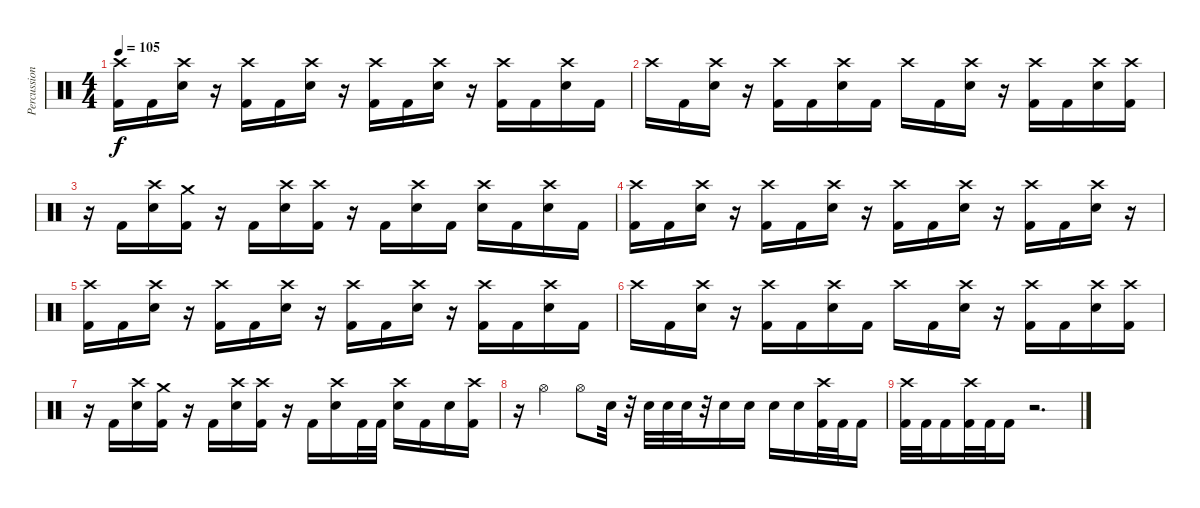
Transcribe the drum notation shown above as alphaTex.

\track ("Percussion" "Percussion") {instrument percussion}
\staff {score}
\articulation defaults
\ts (4 4)
\tempo 105
\clef neutral
\ks c
("Crash high (hit)" "Kick (hit) 2").16{dy f} "Kick (hit) 2".16 ("Crash high (hit)" "Electric Snare (hit)").16 r.16 ("Crash high (hit)" "Kick (hit) 2").16 "Kick (hit) 2".16 ("Crash high (hit)" "Electric Snare (hit)").16 r.16 ("Crash high (hit)" "Kick (hit) 2").16 "Kick (hit) 2".16 ("Crash high (hit)" "Electric Snare (hit)").16 r.16 ("Crash high (hit)" "Kick (hit) 2").16 "Kick (hit) 2".16 ("Crash high (hit)" "Electric Snare (hit)").16 "Kick (hit) 2".16 |
"Crash high (hit)".16 "Kick (hit) 2".16 ("Crash high (hit)" "Electric Snare (hit)").16 r.16 ("Crash high (hit)" "Kick (hit) 2").16 "Kick (hit) 2".16 ("Crash high (hit)" "Electric Snare (hit)").16 "Kick (hit) 2".16 "Crash high (hit)".16 "Kick (hit) 2".16 ("Crash high (hit)" "Electric Snare (hit)").16 r.16 ("Crash high (hit)" "Kick (hit) 2").16 "Kick (hit) 2".16 ("Crash high (hit)" "Electric Snare (hit)").16 ("Crash high (hit)" "Kick (hit) 2").16 |
r.16 "Kick (hit) 2".16 ("Crash high (hit)" "Electric Snare (hit)").16 ("Crash medium (hit)" "Kick (hit) 2").16 r.16 "Kick (hit) 2".16 ("Crash high (hit)" "Electric Snare (hit)").16 ("Crash high (hit)" "Kick (hit) 2").16 r.16 "Kick (hit) 2".16 ("Crash high (hit)" "Electric Snare (hit)").16 "Kick (hit) 2".16 ("Crash high (hit)" "Electric Snare (hit)").16 "Kick (hit) 2".16 ("Crash high (hit)" "Electric Snare (hit)").16 "Kick (hit) 2".16 |
("Crash high (hit)" "Kick (hit) 2").16 "Kick (hit) 2".16 ("Crash high (hit)" "Electric Snare (hit)").16 r.16 ("Crash high (hit)" "Kick (hit) 2").16 "Kick (hit) 2".16 ("Crash high (hit)" "Electric Snare (hit)").16 r.16 ("Crash high (hit)" "Kick (hit) 2").16 "Kick (hit) 2".16 ("Crash high (hit)" "Electric Snare (hit)").16 r.16 ("Crash high (hit)" "Kick (hit) 2").16 "Kick (hit) 2".16 ("Crash high (hit)" "Electric Snare (hit)").16 r.16 |
("Crash high (hit)" "Kick (hit) 2").16 "Kick (hit) 2".16 ("Crash high (hit)" "Electric Snare (hit)").16 r.16 ("Crash high (hit)" "Kick (hit) 2").16 "Kick (hit) 2".16 ("Crash high (hit)" "Electric Snare (hit)").16 r.16 ("Crash high (hit)" "Kick (hit) 2").16 "Kick (hit) 2".16 ("Crash high (hit)" "Electric Snare (hit)").16 r.16 ("Crash high (hit)" "Kick (hit) 2").16 "Kick (hit) 2".16 ("Crash high (hit)" "Electric Snare (hit)").16 "Kick (hit) 2".16 |
"Crash high (hit)".16 "Kick (hit) 2".16 ("Crash high (hit)" "Electric Snare (hit)").16 r.16 ("Crash high (hit)" "Kick (hit) 2").16 "Kick (hit) 2".16 ("Crash high (hit)" "Electric Snare (hit)").16 "Kick (hit) 2".16 "Crash high (hit)".16 "Kick (hit) 2".16 ("Crash high (hit)" "Electric Snare (hit)").16 r.16 ("Crash high (hit)" "Kick (hit) 2").16 "Kick (hit) 2".16 ("Crash high (hit)" "Electric Snare (hit)").16 ("Crash high (hit)" "Kick (hit) 2").16 |
r.16 "Kick (hit) 2".16 ("Crash high (hit)" "Electric Snare (hit)").16 ("Crash medium (hit)" "Kick (hit) 2").16 r.16 "Kick (hit) 2".16 ("Crash high (hit)" "Electric Snare (hit)").16 ("Crash high (hit)" "Kick (hit) 2").16 r.16 "Kick (hit) 2".16 ("Crash high (hit)" "Electric Snare (hit)").16 "Kick (hit) 2".32 "Kick (hit) 2".32 ("Crash high (hit)" "Electric Snare (hit)").16 "Kick (hit) 2".16 "Electric Snare (hit)".16 ("Crash high (hit)" "Kick (hit) 2").16 |
r.16 "Hi-Hat (open)".4 "Hi-Hat (open)".8 "Electric Snare (hit)".32 r.32 "Electric Snare (hit)".32 "Electric Snare (hit)".32 "Electric Snare (hit)".32 r.32 "Electric Snare (hit)".16 "Electric Snare (hit)".16 "Electric Snare (hit)".16 "Electric Snare (hit)".16 ("Crash high (hit)" "Kick (hit) 2").32 "Kick (hit) 2".32 "Kick (hit) 2".16 |
("Crash high (hit)" "Kick (hit) 2").32 "Kick (hit) 2".32 "Kick (hit) 2".16 ("Crash high (hit)" "Kick (hit) 2").32 "Kick (hit) 2".32 "Kick (hit) 2".16 r.2{d}
